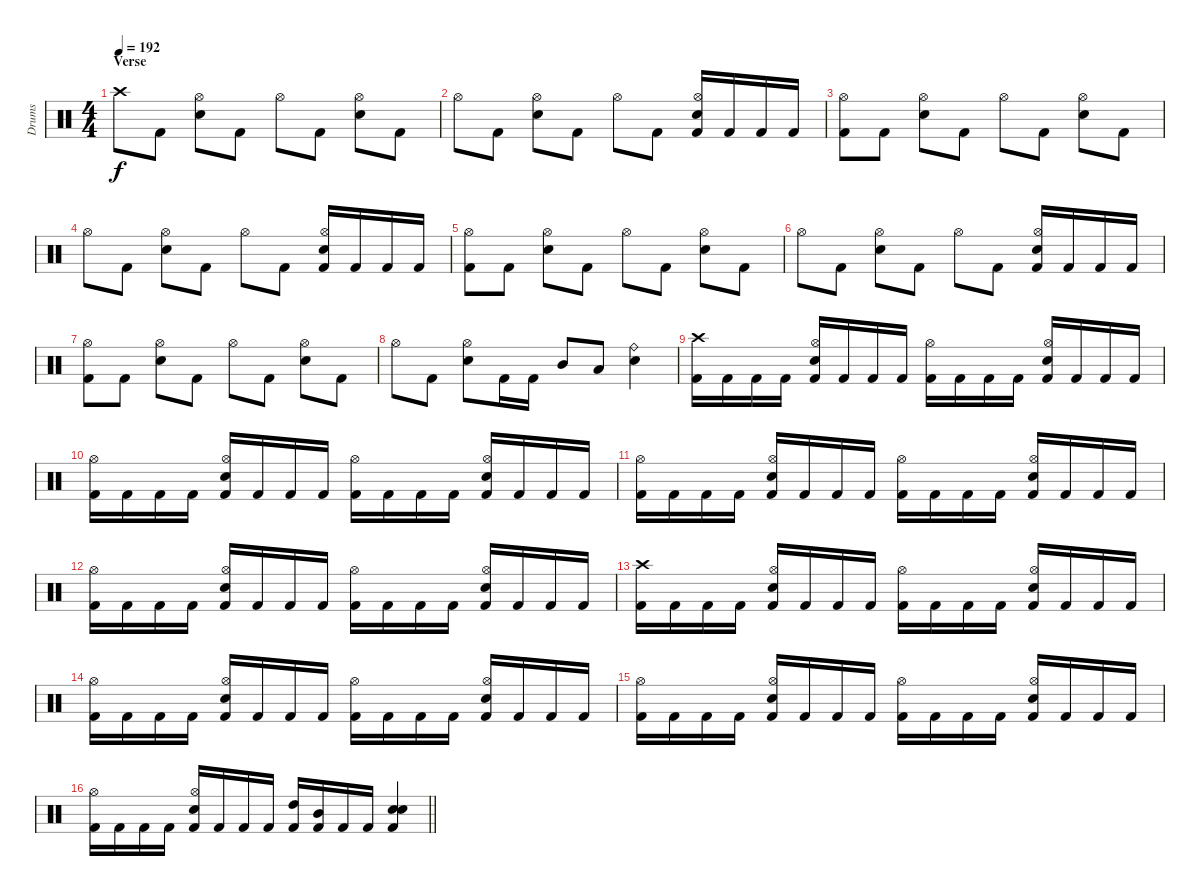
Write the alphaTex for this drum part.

\track ("Drums" "Drums") {instrument percussion}
\staff {score}
\articulation defaults
\ts (4 4)
\section ("" "Verse")
\tempo 192
\clef neutral
\ks c "Crash high (hit)".8{dy f} "Kick (hit) 2".8
("Hi-Hat (open)" "Electric Snare (hit)").8 "Kick (hit) 2".8 "Hi-Hat (open)".8 "Kick (hit) 2".8 ("Hi-Hat (open)" "Electric Snare (hit)").8 "Kick (hit) 2".8 |
"Hi-Hat (open)".8 "Kick (hit) 2".8 ("Hi-Hat (open)" "Electric Snare (hit)").8 "Kick (hit) 2".8 "Hi-Hat (open)".8 "Kick (hit) 2".8 ("Hi-Hat (open)" "Electric Snare (hit)" "Kick (hit) 2").16 "Kick (hit) 2".16 "Kick (hit) 2".16 "Kick (hit) 2".16 |
("Hi-Hat (open)" "Kick (hit) 2").8 "Kick (hit) 2".8 ("Hi-Hat (open)" "Electric Snare (hit)").8 "Kick (hit) 2".8 "Hi-Hat (open)".8 "Kick (hit) 2".8 ("Hi-Hat (open)" "Electric Snare (hit)").8 "Kick (hit) 2".8 |
"Hi-Hat (open)".8 "Kick (hit) 2".8 ("Hi-Hat (open)" "Electric Snare (hit)").8 "Kick (hit) 2".8 "Hi-Hat (open)".8 "Kick (hit) 2".8 ("Hi-Hat (open)" "Electric Snare (hit)" "Kick (hit) 2").16 "Kick (hit) 2".16 "Kick (hit) 2".16 "Kick (hit) 2".16 |
("Hi-Hat (open)" "Kick (hit) 2").8 "Kick (hit) 2".8 ("Hi-Hat (open)" "Electric Snare (hit)").8 "Kick (hit) 2".8 "Hi-Hat (open)".8 "Kick (hit) 2".8 ("Hi-Hat (open)" "Electric Snare (hit)").8 "Kick (hit) 2".8 |
"Hi-Hat (open)".8 "Kick (hit) 2".8 ("Hi-Hat (open)" "Electric Snare (hit)").8 "Kick (hit) 2".8 "Hi-Hat (open)".8 "Kick (hit) 2".8 ("Hi-Hat (open)" "Electric Snare (hit)" "Kick (hit) 2").16 "Kick (hit) 2".16 "Kick (hit) 2".16 "Kick (hit) 2".16 |
("Hi-Hat (open)" "Kick (hit) 2").8 "Kick (hit) 2".8 ("Hi-Hat (open)" "Electric Snare (hit)").8 "Kick (hit) 2".8 "Hi-Hat (open)".8 "Kick (hit) 2".8 ("Hi-Hat (open)" "Electric Snare (hit)").8 "Kick (hit) 2".8 |
"Hi-Hat (open)".8 "Kick (hit) 2".8 ("Hi-Hat (open)" "Electric Snare (hit)").8 "Kick (hit) 2".16 "Kick (hit) 2".16 "Mid Tom (hit)".8 "Low Tom (hit)".8 ("Ride (bell)" "Electric Snare (hit)").4 |
("Crash high (hit)" "Kick (hit) 2").16 "Kick (hit) 2".16 "Kick (hit) 2".16 "Kick (hit) 2".16 ("Hi-Hat (open)" "Electric Snare (hit)" "Kick (hit) 2").16 "Kick (hit) 2".16 "Kick (hit) 2".16 "Kick (hit) 2".16 ("Hi-Hat (open)" "Kick (hit) 2").16 "Kick (hit) 2".16 "Kick (hit) 2".16 "Kick (hit) 2".16 ("Hi-Hat (open)" "Electric Snare (hit)" "Kick (hit) 2").16 "Kick (hit) 2".16 "Kick (hit) 2".16 "Kick (hit) 2".16 |
("Hi-Hat (open)" "Kick (hit) 2").16 "Kick (hit) 2".16 "Kick (hit) 2".16 "Kick (hit) 2".16 ("Hi-Hat (open)" "Electric Snare (hit)" "Kick (hit) 2").16 "Kick (hit) 2".16 "Kick (hit) 2".16 "Kick (hit) 2".16 ("Hi-Hat (open)" "Kick (hit) 2").16 "Kick (hit) 2".16 "Kick (hit) 2".16 "Kick (hit) 2".16 ("Hi-Hat (open)" "Electric Snare (hit)" "Kick (hit) 2").16 "Kick (hit) 2".16 "Kick (hit) 2".16 "Kick (hit) 2".16 |
("Hi-Hat (open)" "Kick (hit) 2").16 "Kick (hit) 2".16 "Kick (hit) 2".16 "Kick (hit) 2".16 ("Hi-Hat (open)" "Electric Snare (hit)" "Kick (hit) 2").16 "Kick (hit) 2".16 "Kick (hit) 2".16 "Kick (hit) 2".16 ("Hi-Hat (open)" "Kick (hit) 2").16 "Kick (hit) 2".16 "Kick (hit) 2".16 "Kick (hit) 2".16 ("Hi-Hat (open)" "Electric Snare (hit)" "Kick (hit) 2").16 "Kick (hit) 2".16 "Kick (hit) 2".16 "Kick (hit) 2".16 |
("Hi-Hat (open)" "Kick (hit) 2").16 "Kick (hit) 2".16 "Kick (hit) 2".16 "Kick (hit) 2".16 ("Hi-Hat (open)" "Electric Snare (hit)" "Kick (hit) 2").16 "Kick (hit) 2".16 "Kick (hit) 2".16 "Kick (hit) 2".16 ("Hi-Hat (open)" "Kick (hit) 2").16 "Kick (hit) 2".16 "Kick (hit) 2".16 "Kick (hit) 2".16 ("Hi-Hat (open)" "Electric Snare (hit)" "Kick (hit) 2").16 "Kick (hit) 2".16 "Kick (hit) 2".16 "Kick (hit) 2".16 |
("Crash high (hit)" "Kick (hit) 2").16 "Kick (hit) 2".16 "Kick (hit) 2".16 "Kick (hit) 2".16 ("Hi-Hat (open)" "Electric Snare (hit)" "Kick (hit) 2").16 "Kick (hit) 2".16 "Kick (hit) 2".16 "Kick (hit) 2".16 ("Hi-Hat (open)" "Kick (hit) 2").16 "Kick (hit) 2".16 "Kick (hit) 2".16 "Kick (hit) 2".16 ("Hi-Hat (open)" "Electric Snare (hit)" "Kick (hit) 2").16 "Kick (hit) 2".16 "Kick (hit) 2".16 "Kick (hit) 2".16 |
("Hi-Hat (open)" "Kick (hit) 2").16 "Kick (hit) 2".16 "Kick (hit) 2".16 "Kick (hit) 2".16 ("Hi-Hat (open)" "Electric Snare (hit)" "Kick (hit) 2").16 "Kick (hit) 2".16 "Kick (hit) 2".16 "Kick (hit) 2".16 ("Hi-Hat (open)" "Kick (hit) 2").16 "Kick (hit) 2".16 "Kick (hit) 2".16 "Kick (hit) 2".16 ("Hi-Hat (open)" "Electric Snare (hit)" "Kick (hit) 2").16 "Kick (hit) 2".16 "Kick (hit) 2".16 "Kick (hit) 2".16 |
("Hi-Hat (open)" "Kick (hit) 2").16 "Kick (hit) 2".16 "Kick (hit) 2".16 "Kick (hit) 2".16 ("Hi-Hat (open)" "Electric Snare (hit)" "Kick (hit) 2").16 "Kick (hit) 2".16 "Kick (hit) 2".16 "Kick (hit) 2".16 ("Hi-Hat (open)" "Kick (hit) 2").16 "Kick (hit) 2".16 "Kick (hit) 2".16 "Kick (hit) 2".16 ("Hi-Hat (open)" "Electric Snare (hit)" "Kick (hit) 2").16 "Kick (hit) 2".16 "Kick (hit) 2".16 "Kick (hit) 2".16 |
\barLineRight lightlight
("Hi-Hat (open)" "Kick (hit) 2").16 "Kick (hit) 2".16 "Kick (hit) 2".16 "Kick (hit) 2".16 ("Hi-Hat (open)" "Electric Snare (hit)" "Kick (hit) 2").16 "Kick (hit) 2".16 "Kick (hit) 2".16 "Kick (hit) 2".16 ("High Tom (hit)" "Kick (hit) 2").16 ("Mid Tom (hit)" "Kick (hit) 2").16 "Kick (hit) 2".16 "Kick (hit) 2".16 ("Electric Snare (hit)" "Electric Snare (hit)" "Kick (hit) 2").4
